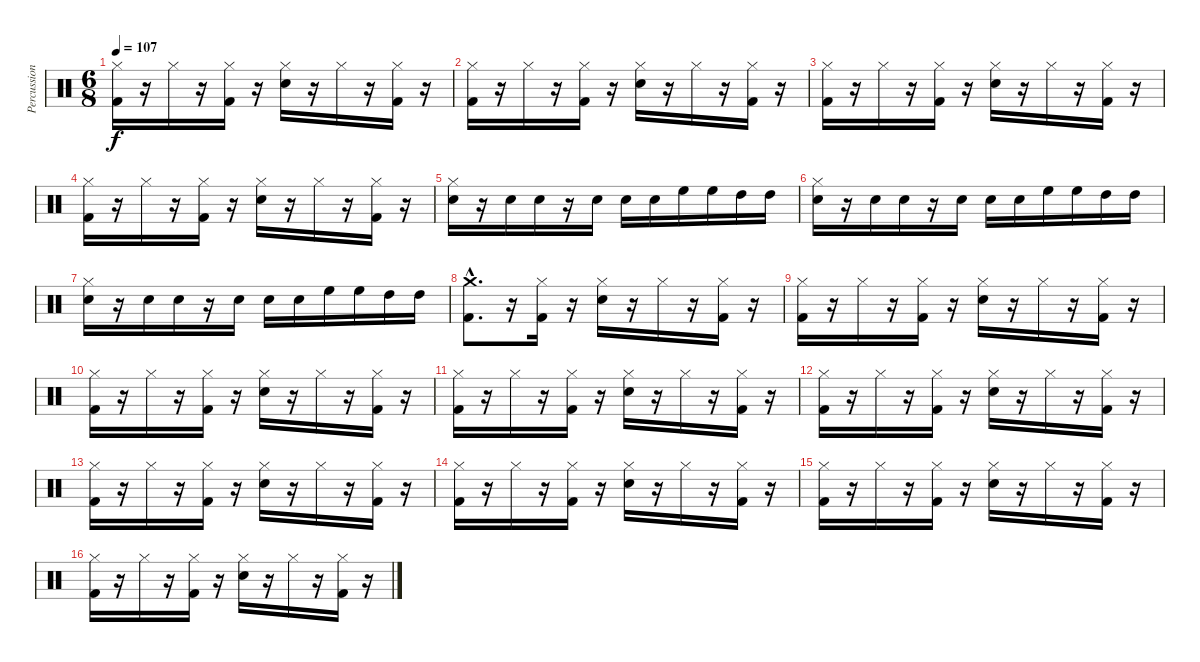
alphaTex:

\track ("Percussions" "Percussion") {instrument percussion}
\staff {score}
\articulation defaults
\ts (6 8)
\tempo 107
\clef neutral
\ks c
("Kick (hit) 2" "Hi-Hat (closed)").16{dy f} r.16 "Hi-Hat (closed)".16 r.16 ("Kick (hit) 2" "Hi-Hat (closed)").16 r.16 ("Snare (hit) 2" "Hi-Hat (closed)").16 r.16 "Hi-Hat (closed)".16 r.16 ("Kick (hit) 2" "Hi-Hat (closed)").16 r.16 |
("Kick (hit) 2" "Hi-Hat (closed)").16 r.16 "Hi-Hat (closed)".16 r.16 ("Kick (hit) 2" "Hi-Hat (closed)").16 r.16 ("Snare (hit) 2" "Hi-Hat (closed)").16 r.16 "Hi-Hat (closed)".16 r.16 ("Kick (hit) 2" "Hi-Hat (closed)").16 r.16 |
("Kick (hit) 2" "Hi-Hat (closed)").16 r.16 "Hi-Hat (closed)".16 r.16 ("Kick (hit) 2" "Hi-Hat (closed)").16 r.16 ("Snare (hit) 2" "Hi-Hat (closed)").16 r.16 "Hi-Hat (closed)".16 r.16 ("Kick (hit) 2" "Hi-Hat (closed)").16 r.16 |
("Kick (hit) 2" "Hi-Hat (closed)").16 r.16 "Hi-Hat (closed)".16 r.16 ("Kick (hit) 2" "Hi-Hat (closed)").16 r.16 ("Snare (hit) 2" "Hi-Hat (closed)").16 r.16 "Hi-Hat (closed)".16 r.16 ("Kick (hit) 2" "Hi-Hat (closed)").16 r.16 |
("Snare (hit) 2" "Hi-Hat (closed)").16 r.16 "Snare (hit) 2".16 "Snare (hit) 2".16 r.16 "Snare (hit) 2".16 "Snare (hit) 2".16 "Snare (hit) 2".16 "High Floor Tom (hit)".16 "High Floor Tom (hit)".16 "High Tom (hit)".16 "High Tom (hit)".16 |
("Snare (hit) 2" "Hi-Hat (closed)").16 r.16 "Snare (hit) 2".16 "Snare (hit) 2".16 r.16 "Snare (hit) 2".16 "Snare (hit) 2".16 "Snare (hit) 2".16 "High Floor Tom (hit)".16 "High Floor Tom (hit)".16 "High Tom (hit)".16 "High Tom (hit)".16 |
("Snare (hit) 2" "Hi-Hat (closed)").16 r.16 "Snare (hit) 2".16 "Snare (hit) 2".16 r.16 "Snare (hit) 2".16 "Snare (hit) 2".16 "Snare (hit) 2".16 "High Floor Tom (hit)".16 "High Floor Tom (hit)".16 "High Tom (hit)".16 "High Tom (hit)".16 |
("Kick (hit) 2"{hac} "Crash medium (hit)"{hac}).8{d} r.16 ("Kick (hit) 2" "Hi-Hat (closed)").16 r.16 ("Snare (hit) 2" "Hi-Hat (closed)").16 r.16 "Hi-Hat (closed)".16 r.16 ("Kick (hit) 2" "Hi-Hat (closed)").16 r.16 |
("Kick (hit) 2" "Hi-Hat (closed)").16 r.16 "Hi-Hat (closed)".16 r.16 ("Kick (hit) 2" "Hi-Hat (closed)").16 r.16 ("Snare (hit) 2" "Hi-Hat (closed)").16 r.16 "Hi-Hat (closed)".16 r.16 ("Kick (hit) 2" "Hi-Hat (closed)").16 r.16 |
("Kick (hit) 2" "Hi-Hat (closed)").16 r.16 "Hi-Hat (closed)".16 r.16 ("Kick (hit) 2" "Hi-Hat (closed)").16 r.16 ("Snare (hit) 2" "Hi-Hat (closed)").16 r.16 "Hi-Hat (closed)".16 r.16 ("Kick (hit) 2" "Hi-Hat (closed)").16 r.16 |
("Kick (hit) 2" "Hi-Hat (closed)").16 r.16 "Hi-Hat (closed)".16 r.16 ("Kick (hit) 2" "Hi-Hat (closed)").16 r.16 ("Snare (hit) 2" "Hi-Hat (closed)").16 r.16 "Hi-Hat (closed)".16 r.16 ("Kick (hit) 2" "Hi-Hat (closed)").16 r.16 |
("Kick (hit) 2" "Hi-Hat (closed)").16 r.16 "Hi-Hat (closed)".16 r.16 ("Kick (hit) 2" "Hi-Hat (closed)").16 r.16 ("Snare (hit) 2" "Hi-Hat (closed)").16 r.16 "Hi-Hat (closed)".16 r.16 ("Kick (hit) 2" "Hi-Hat (closed)").16 r.16 |
("Kick (hit) 2" "Hi-Hat (closed)").16 r.16 "Hi-Hat (closed)".16 r.16 ("Kick (hit) 2" "Hi-Hat (closed)").16 r.16 ("Snare (hit) 2" "Hi-Hat (closed)").16 r.16 "Hi-Hat (closed)".16 r.16 ("Kick (hit) 2" "Hi-Hat (closed)").16 r.16 |
("Kick (hit) 2" "Hi-Hat (closed)").16 r.16 "Hi-Hat (closed)".16 r.16 ("Kick (hit) 2" "Hi-Hat (closed)").16 r.16 ("Snare (hit) 2" "Hi-Hat (closed)").16 r.16 "Hi-Hat (closed)".16 r.16 ("Kick (hit) 2" "Hi-Hat (closed)").16 r.16 |
("Kick (hit) 2" "Hi-Hat (closed)").16 r.16 "Hi-Hat (closed)".16 r.16 ("Kick (hit) 2" "Hi-Hat (closed)").16 r.16 ("Snare (hit) 2" "Hi-Hat (closed)").16 r.16 "Hi-Hat (closed)".16 r.16 ("Kick (hit) 2" "Hi-Hat (closed)").16 r.16 |
("Kick (hit) 2" "Hi-Hat (closed)").16 r.16 "Hi-Hat (closed)".16 r.16 ("Kick (hit) 2" "Hi-Hat (closed)").16 r.16 ("Snare (hit) 2" "Hi-Hat (closed)").16 r.16 "Hi-Hat (closed)".16 r.16 ("Kick (hit) 2" "Hi-Hat (closed)").16 r.16
